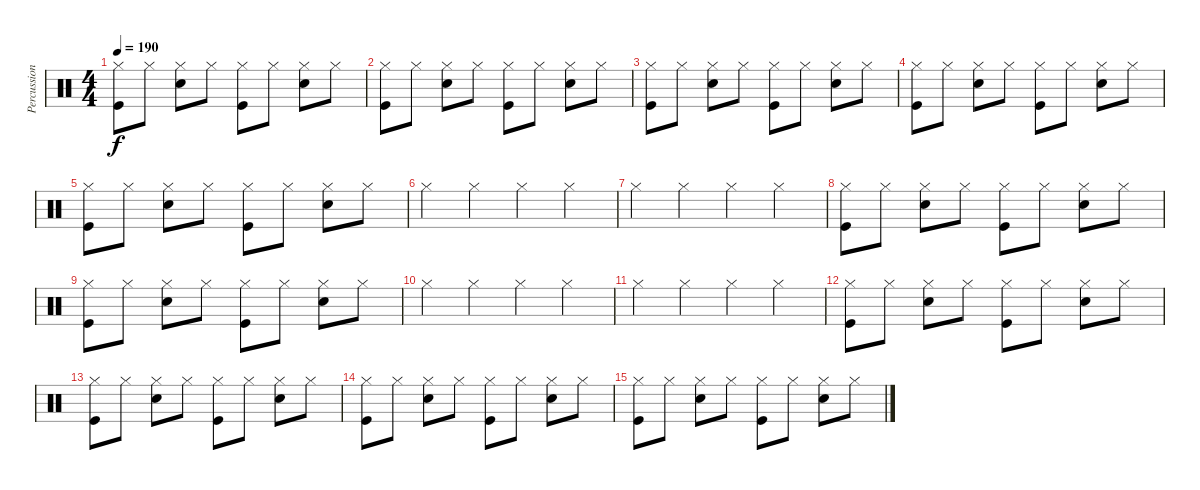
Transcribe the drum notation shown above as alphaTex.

\track ("Percussion" "Percussion") {instrument percussion}
\staff {score}
\articulation defaults
\ts (4 4)
\tempo 190
\clef neutral
\ks c
("Hi-Hat (closed)" "Kick (hit)").8{dy f} "Hi-Hat (closed)".8 ("Hi-Hat (closed)" "Electric Snare (hit)").8 "Hi-Hat (closed)".8 ("Hi-Hat (closed)" "Kick (hit)").8 "Hi-Hat (closed)".8 ("Hi-Hat (closed)" "Electric Snare (hit)").8 "Hi-Hat (closed)".8 |
("Hi-Hat (closed)" "Kick (hit)").8 "Hi-Hat (closed)".8 ("Hi-Hat (closed)" "Electric Snare (hit)").8 "Hi-Hat (closed)".8 ("Hi-Hat (closed)" "Kick (hit)").8 "Hi-Hat (closed)".8 ("Hi-Hat (closed)" "Electric Snare (hit)").8 "Hi-Hat (closed)".8 |
("Hi-Hat (closed)" "Kick (hit)").8 "Hi-Hat (closed)".8 ("Hi-Hat (closed)" "Electric Snare (hit)").8 "Hi-Hat (closed)".8 ("Hi-Hat (closed)" "Kick (hit)").8 "Hi-Hat (closed)".8 ("Hi-Hat (closed)" "Electric Snare (hit)").8 "Hi-Hat (closed)".8 |
("Hi-Hat (closed)" "Kick (hit)").8 "Hi-Hat (closed)".8 ("Hi-Hat (closed)" "Electric Snare (hit)").8 "Hi-Hat (closed)".8 ("Hi-Hat (closed)" "Kick (hit)").8 "Hi-Hat (closed)".8 ("Hi-Hat (closed)" "Electric Snare (hit)").8 "Hi-Hat (closed)".8 |
("Hi-Hat (closed)" "Kick (hit)").8 "Hi-Hat (closed)".8 ("Hi-Hat (closed)" "Electric Snare (hit)").8 "Hi-Hat (closed)".8 ("Hi-Hat (closed)" "Kick (hit)").8 "Hi-Hat (closed)".8 ("Hi-Hat (closed)" "Electric Snare (hit)").8 "Hi-Hat (closed)".8 |
"Hi-Hat (closed)".4 "Hi-Hat (closed)".4 "Hi-Hat (closed)".4 "Hi-Hat (closed)".4 |
"Hi-Hat (closed)".4 "Hi-Hat (closed)".4 "Hi-Hat (closed)".4 "Hi-Hat (closed)".4 |
("Hi-Hat (closed)" "Kick (hit)").8 "Hi-Hat (closed)".8 ("Hi-Hat (closed)" "Electric Snare (hit)").8 "Hi-Hat (closed)".8 ("Hi-Hat (closed)" "Kick (hit)").8 "Hi-Hat (closed)".8 ("Hi-Hat (closed)" "Electric Snare (hit)").8 "Hi-Hat (closed)".8 |
("Hi-Hat (closed)" "Kick (hit)").8 "Hi-Hat (closed)".8 ("Hi-Hat (closed)" "Electric Snare (hit)").8 "Hi-Hat (closed)".8 ("Hi-Hat (closed)" "Kick (hit)").8 "Hi-Hat (closed)".8 ("Hi-Hat (closed)" "Electric Snare (hit)").8 "Hi-Hat (closed)".8 |
"Hi-Hat (closed)".4 "Hi-Hat (closed)".4 "Hi-Hat (closed)".4 "Hi-Hat (closed)".4 |
"Hi-Hat (closed)".4 "Hi-Hat (closed)".4 "Hi-Hat (closed)".4 "Hi-Hat (closed)".4 |
("Hi-Hat (closed)" "Kick (hit)").8 "Hi-Hat (closed)".8 ("Hi-Hat (closed)" "Electric Snare (hit)").8 "Hi-Hat (closed)".8 ("Hi-Hat (closed)" "Kick (hit)").8 "Hi-Hat (closed)".8 ("Hi-Hat (closed)" "Electric Snare (hit)").8 "Hi-Hat (closed)".8 |
("Hi-Hat (closed)" "Kick (hit)").8 "Hi-Hat (closed)".8 ("Hi-Hat (closed)" "Electric Snare (hit)").8 "Hi-Hat (closed)".8 ("Hi-Hat (closed)" "Kick (hit)").8 "Hi-Hat (closed)".8 ("Hi-Hat (closed)" "Electric Snare (hit)").8 "Hi-Hat (closed)".8 |
("Hi-Hat (closed)" "Kick (hit)").8 "Hi-Hat (closed)".8 ("Hi-Hat (closed)" "Electric Snare (hit)").8 "Hi-Hat (closed)".8 ("Hi-Hat (closed)" "Kick (hit)").8 "Hi-Hat (closed)".8 ("Hi-Hat (closed)" "Electric Snare (hit)").8 "Hi-Hat (closed)".8 |
("Hi-Hat (closed)" "Kick (hit)").8 "Hi-Hat (closed)".8 ("Hi-Hat (closed)" "Electric Snare (hit)").8 "Hi-Hat (closed)".8 ("Hi-Hat (closed)" "Kick (hit)").8 "Hi-Hat (closed)".8 ("Hi-Hat (closed)" "Electric Snare (hit)").8 "Hi-Hat (closed)".8
